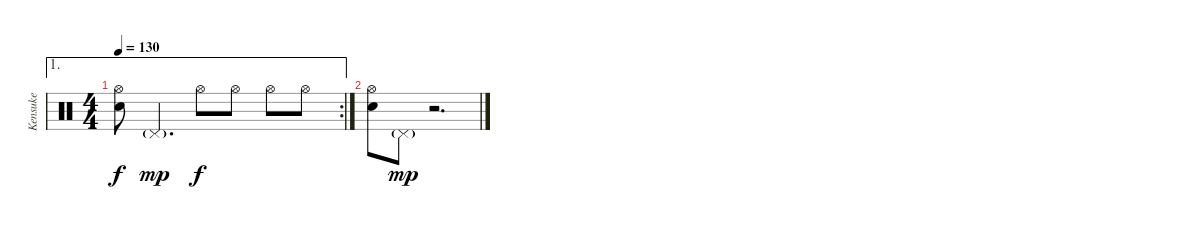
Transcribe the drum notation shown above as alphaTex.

\track ("Kensuke" "Kensuke") {instrument percussion}
\staff {score}
\articulation defaults
\ae 1
\rc 2
\ts (4 4)
\tempo 130
\clef neutral
\ks c
("Hi-Hat (open)" "Electric Snare (hit)").8{dy f} "Pedal Hi-Hat (hit)"{g}.4{d dy mp} "Hi-Hat (open)".8{dy f} "Hi-Hat (open)".8 "Hi-Hat (open)".8 "Hi-Hat (open)".8 |
("Hi-Hat (open)" "Electric Snare (hit)").8 "Pedal Hi-Hat (hit)"{g}.8{dy mp} r.2{d}
